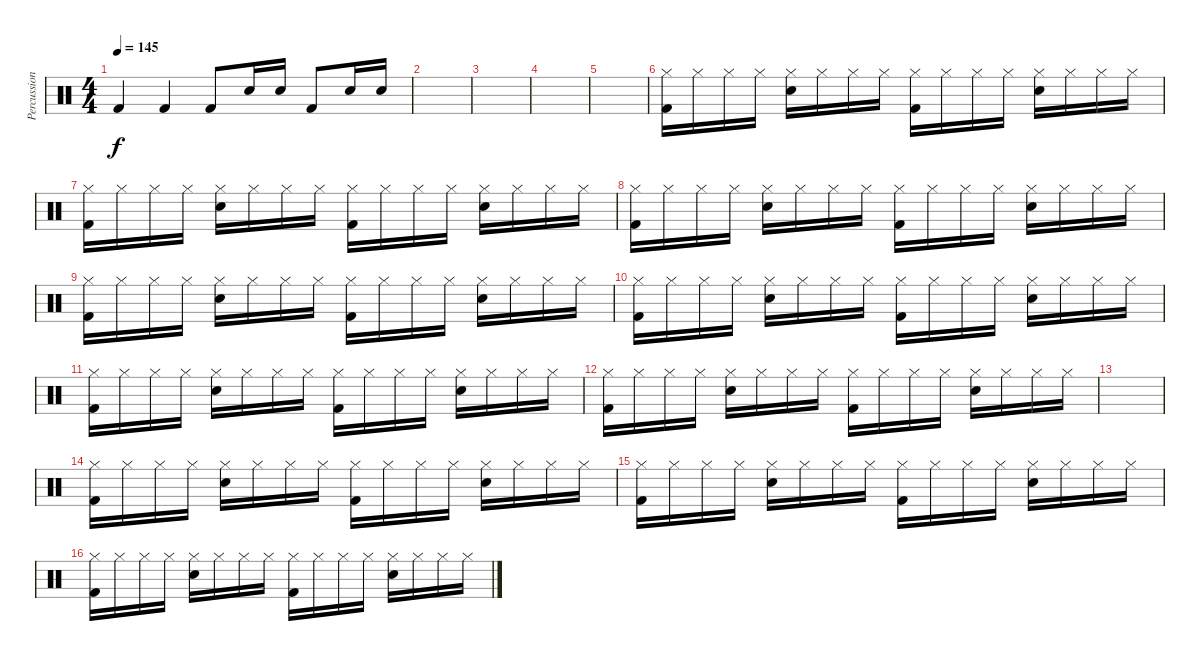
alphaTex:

\track ("Percussion" "Percussion") {instrument percussion}
\staff {score}
\articulation defaults
\ts (4 4)
\tempo 145
\clef neutral
\ks c "Kick (hit) 2".4{dy f} "Kick (hit) 2".4 "Kick (hit) 2".8 "Electric Snare (hit)".16 "Electric Snare (hit)".16 "Kick (hit) 2".8 "Electric Snare (hit)".16 "Electric Snare (hit)".16
|
|
|
|
|
("Hi-Hat (closed)" "Kick (hit) 2").16 "Hi-Hat (closed)".16 "Hi-Hat (closed)".16 "Hi-Hat (closed)".16 ("Hi-Hat (closed)" "Electric Snare (hit)").16 "Hi-Hat (closed)".16 "Hi-Hat (closed)".16 "Hi-Hat (closed)".16 ("Hi-Hat (closed)" "Kick (hit) 2").16 "Hi-Hat (closed)".16 "Hi-Hat (closed)".16 "Hi-Hat (closed)".16 ("Hi-Hat (closed)" "Electric Snare (hit)").16 "Hi-Hat (closed)".16 "Hi-Hat (closed)".16 "Hi-Hat (closed)".16 |
("Hi-Hat (closed)" "Kick (hit) 2").16 "Hi-Hat (closed)".16 "Hi-Hat (closed)".16 "Hi-Hat (closed)".16 ("Hi-Hat (closed)" "Electric Snare (hit)").16 "Hi-Hat (closed)".16 "Hi-Hat (closed)".16 "Hi-Hat (closed)".16 ("Hi-Hat (closed)" "Kick (hit) 2").16 "Hi-Hat (closed)".16 "Hi-Hat (closed)".16 "Hi-Hat (closed)".16 ("Hi-Hat (closed)" "Electric Snare (hit)").16 "Hi-Hat (closed)".16 "Hi-Hat (closed)".16 "Hi-Hat (closed)".16 |
("Hi-Hat (closed)" "Kick (hit) 2").16 "Hi-Hat (closed)".16 "Hi-Hat (closed)".16 "Hi-Hat (closed)".16 ("Hi-Hat (closed)" "Electric Snare (hit)").16 "Hi-Hat (closed)".16 "Hi-Hat (closed)".16 "Hi-Hat (closed)".16 ("Hi-Hat (closed)" "Kick (hit) 2").16 "Hi-Hat (closed)".16 "Hi-Hat (closed)".16 "Hi-Hat (closed)".16 ("Hi-Hat (closed)" "Electric Snare (hit)").16 "Hi-Hat (closed)".16 "Hi-Hat (closed)".16 "Hi-Hat (closed)".16 |
("Hi-Hat (closed)" "Kick (hit) 2").16 "Hi-Hat (closed)".16 "Hi-Hat (closed)".16 "Hi-Hat (closed)".16 ("Hi-Hat (closed)" "Electric Snare (hit)").16 "Hi-Hat (closed)".16 "Hi-Hat (closed)".16 "Hi-Hat (closed)".16 ("Hi-Hat (closed)" "Kick (hit) 2").16 "Hi-Hat (closed)".16 "Hi-Hat (closed)".16 "Hi-Hat (closed)".16 ("Hi-Hat (closed)" "Electric Snare (hit)").16 "Hi-Hat (closed)".16 "Hi-Hat (closed)".16 "Hi-Hat (closed)".16 |
("Hi-Hat (closed)" "Kick (hit) 2").16 "Hi-Hat (closed)".16 "Hi-Hat (closed)".16 "Hi-Hat (closed)".16 ("Hi-Hat (closed)" "Electric Snare (hit)").16 "Hi-Hat (closed)".16 "Hi-Hat (closed)".16 "Hi-Hat (closed)".16 ("Hi-Hat (closed)" "Kick (hit) 2").16 "Hi-Hat (closed)".16 "Hi-Hat (closed)".16 "Hi-Hat (closed)".16 ("Hi-Hat (closed)" "Electric Snare (hit)").16 "Hi-Hat (closed)".16 "Hi-Hat (closed)".16 "Hi-Hat (closed)".16 |
("Hi-Hat (closed)" "Kick (hit) 2").16 "Hi-Hat (closed)".16 "Hi-Hat (closed)".16 "Hi-Hat (closed)".16 ("Hi-Hat (closed)" "Electric Snare (hit)").16 "Hi-Hat (closed)".16 "Hi-Hat (closed)".16 "Hi-Hat (closed)".16 ("Hi-Hat (closed)" "Kick (hit) 2").16 "Hi-Hat (closed)".16 "Hi-Hat (closed)".16 "Hi-Hat (closed)".16 ("Hi-Hat (closed)" "Electric Snare (hit)").16 "Hi-Hat (closed)".16 "Hi-Hat (closed)".16 "Hi-Hat (closed)".16 |
("Hi-Hat (closed)" "Kick (hit) 2").16 "Hi-Hat (closed)".16 "Hi-Hat (closed)".16 "Hi-Hat (closed)".16 ("Hi-Hat (closed)" "Electric Snare (hit)").16 "Hi-Hat (closed)".16 "Hi-Hat (closed)".16 "Hi-Hat (closed)".16 ("Hi-Hat (closed)" "Kick (hit) 2").16 "Hi-Hat (closed)".16 "Hi-Hat (closed)".16 "Hi-Hat (closed)".16 ("Hi-Hat (closed)" "Electric Snare (hit)").16 "Hi-Hat (closed)".16 "Hi-Hat (closed)".16 "Hi-Hat (closed)".16 |
|
("Hi-Hat (closed)" "Kick (hit) 2").16 "Hi-Hat (closed)".16 "Hi-Hat (closed)".16 "Hi-Hat (closed)".16 ("Hi-Hat (closed)" "Electric Snare (hit)").16 "Hi-Hat (closed)".16 "Hi-Hat (closed)".16 "Hi-Hat (closed)".16 ("Hi-Hat (closed)" "Kick (hit) 2").16 "Hi-Hat (closed)".16 "Hi-Hat (closed)".16 "Hi-Hat (closed)".16 ("Hi-Hat (closed)" "Electric Snare (hit)").16 "Hi-Hat (closed)".16 "Hi-Hat (closed)".16 "Hi-Hat (closed)".16 |
("Hi-Hat (closed)" "Kick (hit) 2").16 "Hi-Hat (closed)".16 "Hi-Hat (closed)".16 "Hi-Hat (closed)".16 ("Hi-Hat (closed)" "Electric Snare (hit)").16 "Hi-Hat (closed)".16 "Hi-Hat (closed)".16 "Hi-Hat (closed)".16 ("Hi-Hat (closed)" "Kick (hit) 2").16 "Hi-Hat (closed)".16 "Hi-Hat (closed)".16 "Hi-Hat (closed)".16 ("Hi-Hat (closed)" "Electric Snare (hit)").16 "Hi-Hat (closed)".16 "Hi-Hat (closed)".16 "Hi-Hat (closed)".16 |
("Hi-Hat (closed)" "Kick (hit) 2").16 "Hi-Hat (closed)".16 "Hi-Hat (closed)".16 "Hi-Hat (closed)".16 ("Hi-Hat (closed)" "Electric Snare (hit)").16 "Hi-Hat (closed)".16 "Hi-Hat (closed)".16 "Hi-Hat (closed)".16 ("Hi-Hat (closed)" "Kick (hit) 2").16 "Hi-Hat (closed)".16 "Hi-Hat (closed)".16 "Hi-Hat (closed)".16 ("Hi-Hat (closed)" "Electric Snare (hit)").16 "Hi-Hat (closed)".16 "Hi-Hat (closed)".16 "Hi-Hat (closed)".16
